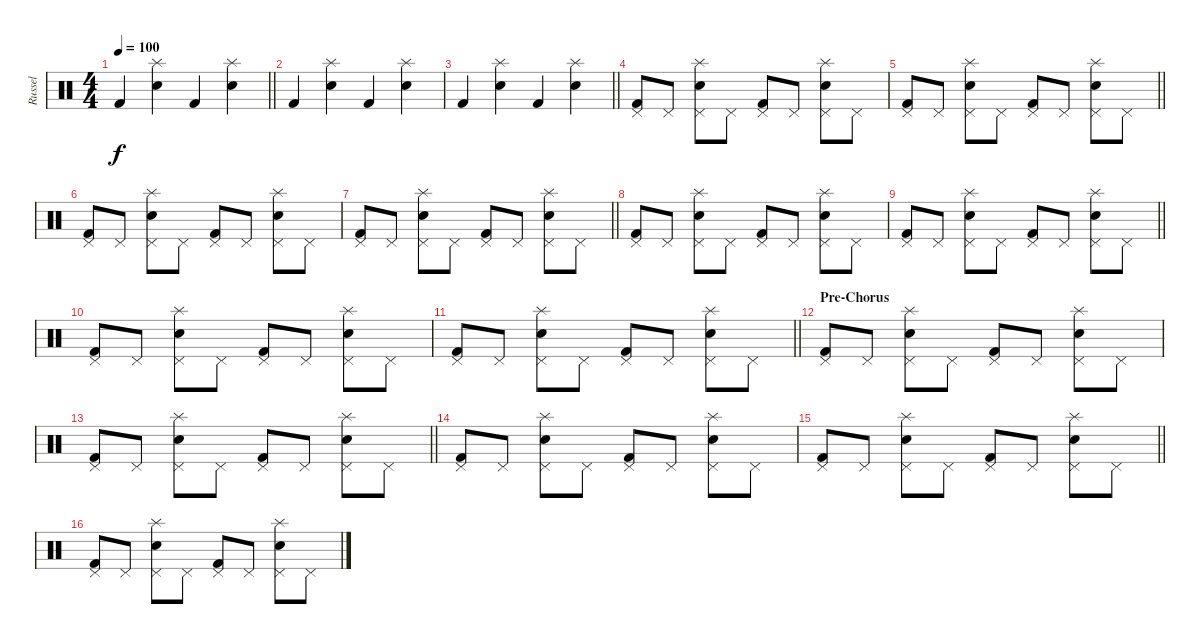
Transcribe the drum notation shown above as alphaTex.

\track ("Russel" "Russel") {instrument percussion}
\staff {score}
\articulation defaults
\ts (4 4)
\tempo 100
\clef neutral
\barLineRight lightlight
\ks c "Kick (hit) 2".4{dy f}
("Splash (hit)" "Electric Snare (hit)").4 "Kick (hit) 2".4 ("Splash (hit)" "Electric Snare (hit)").4 |
"Kick (hit) 2".4 ("Splash (hit)" "Electric Snare (hit)").4 "Kick (hit) 2".4 ("Splash (hit)" "Electric Snare (hit)").4 |
\barLineRight lightlight "Kick (hit) 2".4
("Splash (hit)" "Electric Snare (hit)").4 "Kick (hit) 2".4 ("Splash (hit)" "Electric Snare (hit)").4 |
("Pedal Hi-Hat (hit)" "Kick (hit) 2").8 "Pedal Hi-Hat (hit)".8 ("Splash (hit)" "Pedal Hi-Hat (hit)" "Electric Snare (hit)").8 "Pedal Hi-Hat (hit)".8 ("Pedal Hi-Hat (hit)" "Kick (hit) 2").8 "Pedal Hi-Hat (hit)".8 ("Splash (hit)" "Pedal Hi-Hat (hit)" "Electric Snare (hit)").8 "Pedal Hi-Hat (hit)".8 |
\barLineRight lightlight
("Pedal Hi-Hat (hit)" "Kick (hit) 2").8 "Pedal Hi-Hat (hit)".8 ("Splash (hit)" "Pedal Hi-Hat (hit)" "Electric Snare (hit)").8 "Pedal Hi-Hat (hit)".8 ("Pedal Hi-Hat (hit)" "Kick (hit) 2").8 "Pedal Hi-Hat (hit)".8 ("Splash (hit)" "Pedal Hi-Hat (hit)" "Electric Snare (hit)").8 "Pedal Hi-Hat (hit)".8 |
("Pedal Hi-Hat (hit)" "Kick (hit) 2").8 "Pedal Hi-Hat (hit)".8 ("Splash (hit)" "Pedal Hi-Hat (hit)" "Electric Snare (hit)").8 "Pedal Hi-Hat (hit)".8 ("Pedal Hi-Hat (hit)" "Kick (hit) 2").8 "Pedal Hi-Hat (hit)".8 ("Splash (hit)" "Pedal Hi-Hat (hit)" "Electric Snare (hit)").8 "Pedal Hi-Hat (hit)".8 |
\barLineRight lightlight
("Pedal Hi-Hat (hit)" "Kick (hit) 2").8 "Pedal Hi-Hat (hit)".8 ("Splash (hit)" "Pedal Hi-Hat (hit)" "Electric Snare (hit)").8 "Pedal Hi-Hat (hit)".8 ("Pedal Hi-Hat (hit)" "Kick (hit) 2").8 "Pedal Hi-Hat (hit)".8 ("Splash (hit)" "Pedal Hi-Hat (hit)" "Electric Snare (hit)").8 "Pedal Hi-Hat (hit)".8 |
("Pedal Hi-Hat (hit)" "Kick (hit) 2").8 "Pedal Hi-Hat (hit)".8 ("Splash (hit)" "Pedal Hi-Hat (hit)" "Electric Snare (hit)").8 "Pedal Hi-Hat (hit)".8 ("Pedal Hi-Hat (hit)" "Kick (hit) 2").8 "Pedal Hi-Hat (hit)".8 ("Splash (hit)" "Pedal Hi-Hat (hit)" "Electric Snare (hit)").8 "Pedal Hi-Hat (hit)".8 |
\barLineRight lightlight
("Pedal Hi-Hat (hit)" "Kick (hit) 2").8 "Pedal Hi-Hat (hit)".8 ("Splash (hit)" "Pedal Hi-Hat (hit)" "Electric Snare (hit)").8 "Pedal Hi-Hat (hit)".8 ("Pedal Hi-Hat (hit)" "Kick (hit) 2").8 "Pedal Hi-Hat (hit)".8 ("Splash (hit)" "Pedal Hi-Hat (hit)" "Electric Snare (hit)").8 "Pedal Hi-Hat (hit)".8 |
("Pedal Hi-Hat (hit)" "Kick (hit) 2").8 "Pedal Hi-Hat (hit)".8 ("Splash (hit)" "Pedal Hi-Hat (hit)" "Electric Snare (hit)").8 "Pedal Hi-Hat (hit)".8 ("Pedal Hi-Hat (hit)" "Kick (hit) 2").8 "Pedal Hi-Hat (hit)".8 ("Splash (hit)" "Pedal Hi-Hat (hit)" "Electric Snare (hit)").8 "Pedal Hi-Hat (hit)".8 |
\barLineRight lightlight
("Pedal Hi-Hat (hit)" "Kick (hit) 2").8 "Pedal Hi-Hat (hit)".8 ("Splash (hit)" "Pedal Hi-Hat (hit)" "Electric Snare (hit)").8 "Pedal Hi-Hat (hit)".8 ("Pedal Hi-Hat (hit)" "Kick (hit) 2").8 "Pedal Hi-Hat (hit)".8 ("Splash (hit)" "Pedal Hi-Hat (hit)" "Electric Snare (hit)").8 "Pedal Hi-Hat (hit)".8 |
\section ("" "Pre-Chorus")
("Pedal Hi-Hat (hit)" "Kick (hit) 2").8 "Pedal Hi-Hat (hit)".8 ("Splash (hit)" "Pedal Hi-Hat (hit)" "Electric Snare (hit)").8 "Pedal Hi-Hat (hit)".8 ("Pedal Hi-Hat (hit)" "Kick (hit) 2").8 "Pedal Hi-Hat (hit)".8 ("Splash (hit)" "Pedal Hi-Hat (hit)" "Electric Snare (hit)").8 "Pedal Hi-Hat (hit)".8 |
\barLineRight lightlight
("Pedal Hi-Hat (hit)" "Kick (hit) 2").8 "Pedal Hi-Hat (hit)".8 ("Splash (hit)" "Pedal Hi-Hat (hit)" "Electric Snare (hit)").8 "Pedal Hi-Hat (hit)".8 ("Pedal Hi-Hat (hit)" "Kick (hit) 2").8 "Pedal Hi-Hat (hit)".8 ("Splash (hit)" "Pedal Hi-Hat (hit)" "Electric Snare (hit)").8 "Pedal Hi-Hat (hit)".8 |
("Pedal Hi-Hat (hit)" "Kick (hit) 2").8 "Pedal Hi-Hat (hit)".8 ("Splash (hit)" "Pedal Hi-Hat (hit)" "Electric Snare (hit)").8 "Pedal Hi-Hat (hit)".8 ("Pedal Hi-Hat (hit)" "Kick (hit) 2").8 "Pedal Hi-Hat (hit)".8 ("Splash (hit)" "Pedal Hi-Hat (hit)" "Electric Snare (hit)").8 "Pedal Hi-Hat (hit)".8 |
\barLineRight lightlight
("Pedal Hi-Hat (hit)" "Kick (hit) 2").8 "Pedal Hi-Hat (hit)".8 ("Splash (hit)" "Pedal Hi-Hat (hit)" "Electric Snare (hit)").8 "Pedal Hi-Hat (hit)".8 ("Pedal Hi-Hat (hit)" "Kick (hit) 2").8 "Pedal Hi-Hat (hit)".8 ("Splash (hit)" "Pedal Hi-Hat (hit)" "Electric Snare (hit)").8 "Pedal Hi-Hat (hit)".8 |
("Pedal Hi-Hat (hit)" "Kick (hit) 2").8 "Pedal Hi-Hat (hit)".8 ("Splash (hit)" "Pedal Hi-Hat (hit)" "Electric Snare (hit)").8 "Pedal Hi-Hat (hit)".8 ("Pedal Hi-Hat (hit)" "Kick (hit) 2").8 "Pedal Hi-Hat (hit)".8 ("Splash (hit)" "Pedal Hi-Hat (hit)" "Electric Snare (hit)").8 "Pedal Hi-Hat (hit)".8
